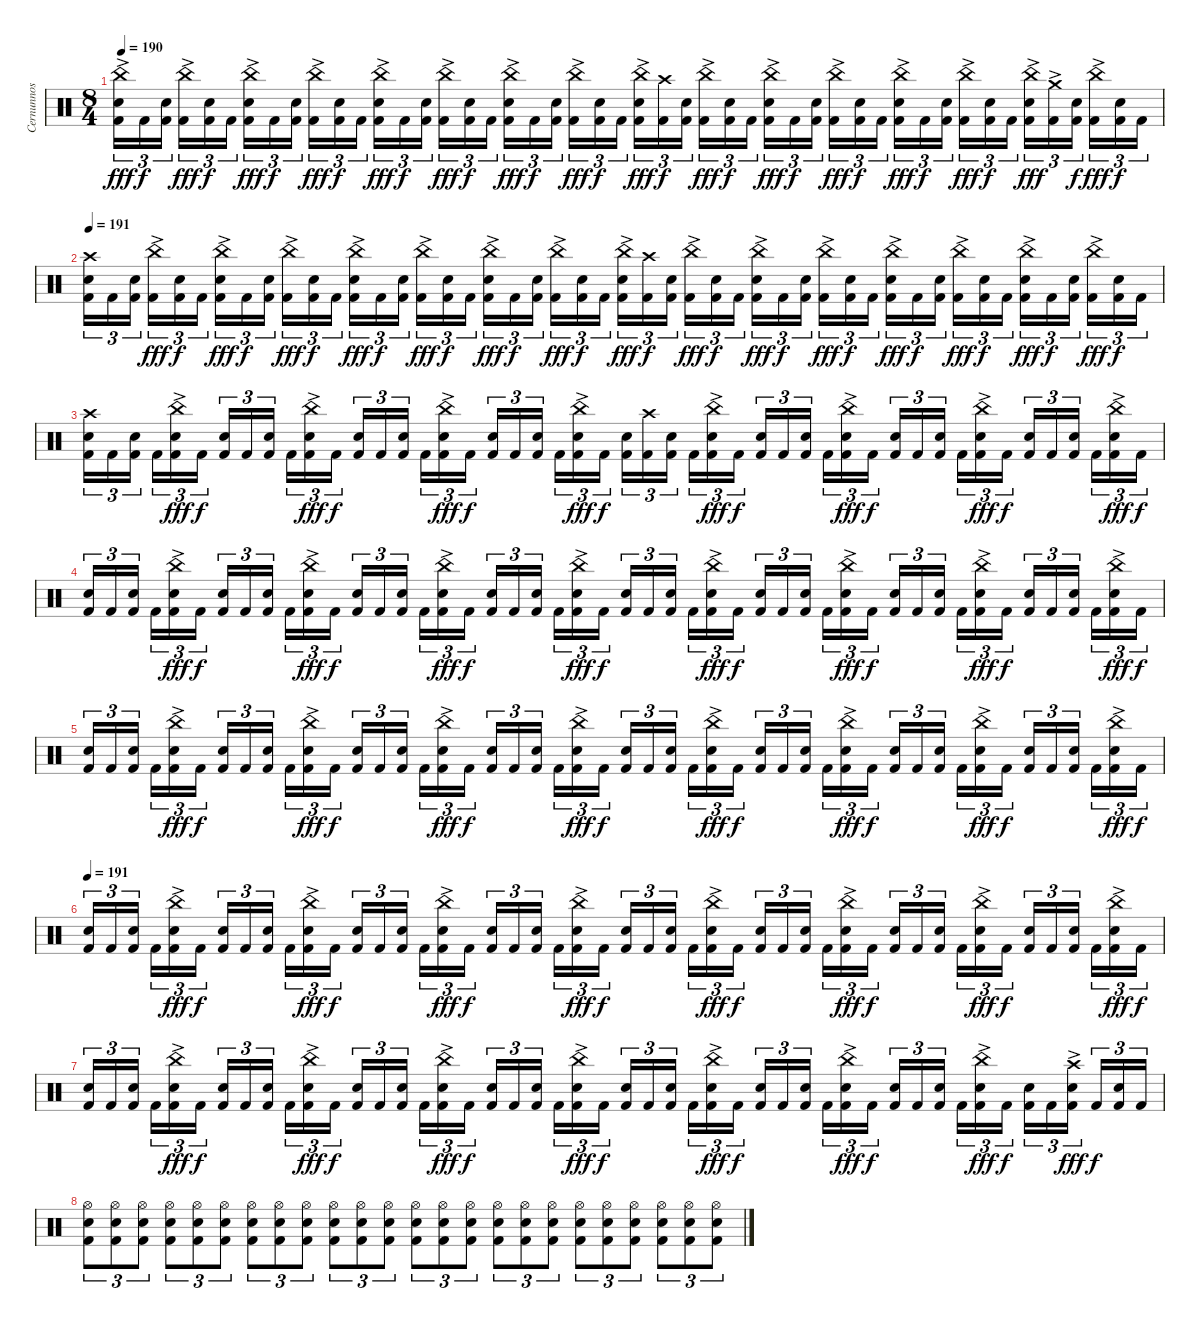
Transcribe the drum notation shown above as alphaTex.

\track ("Cernunnos (in memory)" "Cernunnos ") {instrument percussion}
\staff {score}
\articulation defaults
\ts (8 4)
\tempo 190
\clef neutral
\ks c
("China (hit)"{ac} "Electric Snare (hit)" "Kick (hit) 2").16{tu (3 2) dy fff} "Kick (hit) 2".16{tu (3 2) dy f} ("Electric Snare (hit)" "Kick (hit) 2").16{tu (3 2)} ("China (hit)"{ac} "Kick (hit) 2").16{tu (3 2) dy fff} ("Electric Snare (hit)" "Kick (hit) 2").16{tu (3 2) dy f} "Kick (hit) 2".16{tu (3 2)} ("China (hit)"{ac} "Electric Snare (hit)" "Kick (hit) 2").16{tu (3 2) dy fff} "Kick (hit) 2".16{tu (3 2) dy f} ("Electric Snare (hit)" "Kick (hit) 2").16{tu (3 2)} ("China (hit)"{ac} "Kick (hit) 2").16{tu (3 2) dy fff} ("Electric Snare (hit)" "Kick (hit) 2").16{tu (3 2) dy f} "Kick (hit) 2".16{tu (3 2)} ("China (hit)"{ac} "Electric Snare (hit)" "Kick (hit) 2").16{tu (3 2) dy fff} "Kick (hit) 2".16{tu (3 2) dy f} ("Electric Snare (hit)" "Kick (hit) 2").16{tu (3 2)} ("China (hit)"{ac} "Kick (hit) 2").16{tu (3 2) dy fff} ("Electric Snare (hit)" "Kick (hit) 2").16{tu (3 2) dy f} "Kick (hit) 2".16{tu (3 2)} ("China (hit)"{ac} "Electric Snare (hit)" "Kick (hit) 2").16{tu (3 2) dy fff} "Kick (hit) 2".16{tu (3 2) dy f} ("Electric Snare (hit)" "Kick (hit) 2").16{tu (3 2)} ("China (hit)"{ac} "Kick (hit) 2").16{tu (3 2) dy fff} ("Electric Snare (hit)" "Kick (hit) 2").16{tu (3 2) dy f} "Kick (hit) 2".16{tu (3 2)} ("China (hit)"{ac} "Electric Snare (hit)" "Kick (hit) 2").16{tu (3 2) dy fff} ("Crash high (hit)" "Kick (hit) 2").16{tu (3 2) dy f} ("Electric Snare (hit)" "Kick (hit) 2").16{tu (3 2)} ("China (hit)"{ac} "Kick (hit) 2").16{tu (3 2) dy fff} ("Electric Snare (hit)" "Kick (hit) 2").16{tu (3 2) dy f} "Kick (hit) 2".16{tu (3 2)} ("China (hit)"{ac} "Electric Snare (hit)" "Kick (hit) 2").16{tu (3 2) dy fff} "Kick (hit) 2".16{tu (3 2) dy f} ("Electric Snare (hit)" "Kick (hit) 2").16{tu (3 2)} ("China (hit)"{ac} "Kick (hit) 2").16{tu (3 2) dy fff} ("Electric Snare (hit)" "Kick (hit) 2").16{tu (3 2) dy f} "Kick (hit) 2".16{tu (3 2)} ("China (hit)"{ac} "Electric Snare (hit)" "Kick (hit) 2").16{tu (3 2) dy fff} "Kick (hit) 2".16{tu (3 2) dy f} ("Electric Snare (hit)" "Kick (hit) 2").16{tu (3 2)} ("China (hit)"{ac} "Kick (hit) 2").16{tu (3 2) dy fff} ("Electric Snare (hit)" "Kick (hit) 2").16{tu (3 2) dy f} "Kick (hit) 2".16{tu (3 2)} ("China (hit)"{ac} "Electric Snare (hit)" "Kick (hit) 2").16{tu (3 2) dy fff} ("Crash medium (hit)"{ac} "Kick (hit) 2").16{tu (3 2)} ("Electric Snare (hit)" "Kick (hit) 2").16{tu (3 2) dy f} ("China (hit)"{ac} "Kick (hit) 2").16{tu (3 2) dy fff} ("Electric Snare (hit)" "Kick (hit) 2").16{tu (3 2) dy f} "Kick (hit) 2".16{tu (3 2)} |
\tempo 191
("Crash high (hit)" "Electric Snare (hit)" "Kick (hit) 2").16{tu (3 2)} "Kick (hit) 2".16{tu (3 2)} ("Electric Snare (hit)" "Kick (hit) 2").16{tu (3 2)} ("China (hit)"{ac} "Kick (hit) 2").16{tu (3 2) dy fff} ("Electric Snare (hit)" "Kick (hit) 2").16{tu (3 2) dy f} "Kick (hit) 2".16{tu (3 2)} ("China (hit)"{ac} "Electric Snare (hit)" "Kick (hit) 2").16{tu (3 2) dy fff} "Kick (hit) 2".16{tu (3 2) dy f} ("Electric Snare (hit)" "Kick (hit) 2").16{tu (3 2)} ("China (hit)"{ac} "Kick (hit) 2").16{tu (3 2) dy fff} ("Electric Snare (hit)" "Kick (hit) 2").16{tu (3 2) dy f} "Kick (hit) 2".16{tu (3 2)} ("China (hit)"{ac} "Electric Snare (hit)" "Kick (hit) 2").16{tu (3 2) dy fff} "Kick (hit) 2".16{tu (3 2) dy f} ("Electric Snare (hit)" "Kick (hit) 2").16{tu (3 2)} ("China (hit)"{ac} "Kick (hit) 2").16{tu (3 2) dy fff} ("Electric Snare (hit)" "Kick (hit) 2").16{tu (3 2) dy f} "Kick (hit) 2".16{tu (3 2)} ("China (hit)"{ac} "Electric Snare (hit)" "Kick (hit) 2").16{tu (3 2) dy fff} "Kick (hit) 2".16{tu (3 2) dy f} ("Electric Snare (hit)" "Kick (hit) 2").16{tu (3 2)} ("China (hit)"{ac} "Kick (hit) 2").16{tu (3 2) dy fff} ("Electric Snare (hit)" "Kick (hit) 2").16{tu (3 2) dy f} "Kick (hit) 2".16{tu (3 2)} ("China (hit)"{ac} "Electric Snare (hit)" "Kick (hit) 2").16{tu (3 2) dy fff} ("Crash high (hit)" "Kick (hit) 2").16{tu (3 2) dy f} ("Electric Snare (hit)" "Kick (hit) 2").16{tu (3 2)} ("China (hit)"{ac} "Kick (hit) 2").16{tu (3 2) dy fff} ("Electric Snare (hit)" "Kick (hit) 2").16{tu (3 2) dy f} "Kick (hit) 2".16{tu (3 2)} ("China (hit)"{ac} "Electric Snare (hit)" "Kick (hit) 2").16{tu (3 2) dy fff} "Kick (hit) 2".16{tu (3 2) dy f} ("Electric Snare (hit)" "Kick (hit) 2").16{tu (3 2)} ("China (hit)"{ac} "Kick (hit) 2").16{tu (3 2) dy fff} ("Electric Snare (hit)" "Kick (hit) 2").16{tu (3 2) dy f} "Kick (hit) 2".16{tu (3 2)} ("China (hit)"{ac} "Electric Snare (hit)" "Kick (hit) 2").16{tu (3 2) dy fff} "Kick (hit) 2".16{tu (3 2) dy f} ("Electric Snare (hit)" "Kick (hit) 2").16{tu (3 2)} ("China (hit)"{ac} "Kick (hit) 2").16{tu (3 2) dy fff} ("Electric Snare (hit)" "Kick (hit) 2").16{tu (3 2) dy f} "Kick (hit) 2".16{tu (3 2)} ("China (hit)"{ac} "Electric Snare (hit)" "Kick (hit) 2").16{tu (3 2) dy fff} "Kick (hit) 2".16{tu (3 2) dy f} ("Electric Snare (hit)" "Kick (hit) 2").16{tu (3 2)} ("China (hit)"{ac} "Kick (hit) 2").16{tu (3 2) dy fff} ("Electric Snare (hit)" "Kick (hit) 2").16{tu (3 2) dy f} "Kick (hit) 2".16{tu (3 2)} |
("Crash high (hit)" "Electric Snare (hit)" "Kick (hit) 2").16{tu (3 2)} "Kick (hit) 2".16{tu (3 2)} ("Electric Snare (hit)" "Kick (hit) 2").16{tu (3 2)} "Kick (hit) 2".16{tu (3 2)} ("China (hit)"{ac} "Electric Snare (hit)" "Kick (hit) 2").16{tu (3 2) dy fff} "Kick (hit) 2".16{tu (3 2) dy f} ("Electric Snare (hit)" "Kick (hit) 2").16{tu (3 2)} "Kick (hit) 2".16{tu (3 2)} ("Electric Snare (hit)" "Kick (hit) 2").16{tu (3 2)} "Kick (hit) 2".16{tu (3 2)} ("China (hit)"{ac} "Electric Snare (hit)" "Kick (hit) 2").16{tu (3 2) dy fff} "Kick (hit) 2".16{tu (3 2) dy f} ("Electric Snare (hit)" "Kick (hit) 2").16{tu (3 2)} "Kick (hit) 2".16{tu (3 2)} ("Electric Snare (hit)" "Kick (hit) 2").16{tu (3 2)} "Kick (hit) 2".16{tu (3 2)} ("China (hit)"{ac} "Electric Snare (hit)" "Kick (hit) 2").16{tu (3 2) dy fff} "Kick (hit) 2".16{tu (3 2) dy f} ("Electric Snare (hit)" "Kick (hit) 2").16{tu (3 2)} "Kick (hit) 2".16{tu (3 2)} ("Electric Snare (hit)" "Kick (hit) 2").16{tu (3 2)} "Kick (hit) 2".16{tu (3 2)} ("China (hit)"{ac} "Electric Snare (hit)" "Kick (hit) 2").16{tu (3 2) dy fff} "Kick (hit) 2".16{tu (3 2) dy f} ("Electric Snare (hit)" "Kick (hit) 2").16{tu (3 2)} ("Crash high (hit)" "Kick (hit) 2").16{tu (3 2)} ("Electric Snare (hit)" "Kick (hit) 2").16{tu (3 2)} "Kick (hit) 2".16{tu (3 2)} ("China (hit)"{ac} "Electric Snare (hit)" "Kick (hit) 2").16{tu (3 2) dy fff} "Kick (hit) 2".16{tu (3 2) dy f} ("Electric Snare (hit)" "Kick (hit) 2").16{tu (3 2)} "Kick (hit) 2".16{tu (3 2)} ("Electric Snare (hit)" "Kick (hit) 2").16{tu (3 2)} "Kick (hit) 2".16{tu (3 2)} ("China (hit)"{ac} "Electric Snare (hit)" "Kick (hit) 2").16{tu (3 2) dy fff} "Kick (hit) 2".16{tu (3 2) dy f} ("Electric Snare (hit)" "Kick (hit) 2").16{tu (3 2)} "Kick (hit) 2".16{tu (3 2)} ("Electric Snare (hit)" "Kick (hit) 2").16{tu (3 2)} "Kick (hit) 2".16{tu (3 2)} ("China (hit)"{ac} "Electric Snare (hit)" "Kick (hit) 2").16{tu (3 2) dy fff} "Kick (hit) 2".16{tu (3 2) dy f} ("Electric Snare (hit)" "Kick (hit) 2").16{tu (3 2)} "Kick (hit) 2".16{tu (3 2)} ("Electric Snare (hit)" "Kick (hit) 2").16{tu (3 2)} "Kick (hit) 2".16{tu (3 2)} ("China (hit)"{ac} "Electric Snare (hit)" "Kick (hit) 2").16{tu (3 2) dy fff} "Kick (hit) 2".16{tu (3 2) dy f} |
("Electric Snare (hit)" "Kick (hit) 2").16{tu (3 2)} "Kick (hit) 2".16{tu (3 2)} ("Electric Snare (hit)" "Kick (hit) 2").16{tu (3 2)} "Kick (hit) 2".16{tu (3 2)} ("China (hit)"{ac} "Electric Snare (hit)" "Kick (hit) 2").16{tu (3 2) dy fff} "Kick (hit) 2".16{tu (3 2) dy f} ("Electric Snare (hit)" "Kick (hit) 2").16{tu (3 2)} "Kick (hit) 2".16{tu (3 2)} ("Electric Snare (hit)" "Kick (hit) 2").16{tu (3 2)} "Kick (hit) 2".16{tu (3 2)} ("China (hit)"{ac} "Electric Snare (hit)" "Kick (hit) 2").16{tu (3 2) dy fff} "Kick (hit) 2".16{tu (3 2) dy f} ("Electric Snare (hit)" "Kick (hit) 2").16{tu (3 2)} "Kick (hit) 2".16{tu (3 2)} ("Electric Snare (hit)" "Kick (hit) 2").16{tu (3 2)} "Kick (hit) 2".16{tu (3 2)} ("China (hit)"{ac} "Electric Snare (hit)" "Kick (hit) 2").16{tu (3 2) dy fff} "Kick (hit) 2".16{tu (3 2) dy f} ("Electric Snare (hit)" "Kick (hit) 2").16{tu (3 2)} "Kick (hit) 2".16{tu (3 2)} ("Electric Snare (hit)" "Kick (hit) 2").16{tu (3 2)} "Kick (hit) 2".16{tu (3 2)} ("China (hit)"{ac} "Electric Snare (hit)" "Kick (hit) 2").16{tu (3 2) dy fff} "Kick (hit) 2".16{tu (3 2) dy f} ("Electric Snare (hit)" "Kick (hit) 2").16{tu (3 2)} "Kick (hit) 2".16{tu (3 2)} ("Electric Snare (hit)" "Kick (hit) 2").16{tu (3 2)} "Kick (hit) 2".16{tu (3 2)} ("China (hit)"{ac} "Electric Snare (hit)" "Kick (hit) 2").16{tu (3 2) dy fff} "Kick (hit) 2".16{tu (3 2) dy f} ("Electric Snare (hit)" "Kick (hit) 2").16{tu (3 2)} "Kick (hit) 2".16{tu (3 2)} ("Electric Snare (hit)" "Kick (hit) 2").16{tu (3 2)} "Kick (hit) 2".16{tu (3 2)} ("China (hit)"{ac} "Electric Snare (hit)" "Kick (hit) 2").16{tu (3 2) dy fff} "Kick (hit) 2".16{tu (3 2) dy f} ("Electric Snare (hit)" "Kick (hit) 2").16{tu (3 2)} "Kick (hit) 2".16{tu (3 2)} ("Electric Snare (hit)" "Kick (hit) 2").16{tu (3 2)} "Kick (hit) 2".16{tu (3 2)} ("China (hit)"{ac} "Electric Snare (hit)" "Kick (hit) 2").16{tu (3 2) dy fff} "Kick (hit) 2".16{tu (3 2) dy f} ("Electric Snare (hit)" "Kick (hit) 2").16{tu (3 2)} "Kick (hit) 2".16{tu (3 2)} ("Electric Snare (hit)" "Kick (hit) 2").16{tu (3 2)} "Kick (hit) 2".16{tu (3 2)} ("China (hit)"{ac} "Electric Snare (hit)" "Kick (hit) 2").16{tu (3 2) dy fff} "Kick (hit) 2".16{tu (3 2) dy f} |
("Electric Snare (hit)" "Kick (hit) 2").16{tu (3 2)} "Kick (hit) 2".16{tu (3 2)} ("Electric Snare (hit)" "Kick (hit) 2").16{tu (3 2)} "Kick (hit) 2".16{tu (3 2)} ("China (hit)"{ac} "Electric Snare (hit)" "Kick (hit) 2").16{tu (3 2) dy fff} "Kick (hit) 2".16{tu (3 2) dy f} ("Electric Snare (hit)" "Kick (hit) 2").16{tu (3 2)} "Kick (hit) 2".16{tu (3 2)} ("Electric Snare (hit)" "Kick (hit) 2").16{tu (3 2)} "Kick (hit) 2".16{tu (3 2)} ("China (hit)"{ac} "Electric Snare (hit)" "Kick (hit) 2").16{tu (3 2) dy fff} "Kick (hit) 2".16{tu (3 2) dy f} ("Electric Snare (hit)" "Kick (hit) 2").16{tu (3 2)} "Kick (hit) 2".16{tu (3 2)} ("Electric Snare (hit)" "Kick (hit) 2").16{tu (3 2)} "Kick (hit) 2".16{tu (3 2)} ("China (hit)"{ac} "Electric Snare (hit)" "Kick (hit) 2").16{tu (3 2) dy fff} "Kick (hit) 2".16{tu (3 2) dy f} ("Electric Snare (hit)" "Kick (hit) 2").16{tu (3 2)} "Kick (hit) 2".16{tu (3 2)} ("Electric Snare (hit)" "Kick (hit) 2").16{tu (3 2)} "Kick (hit) 2".16{tu (3 2)} ("China (hit)"{ac} "Electric Snare (hit)" "Kick (hit) 2").16{tu (3 2) dy fff} "Kick (hit) 2".16{tu (3 2) dy f} ("Electric Snare (hit)" "Kick (hit) 2").16{tu (3 2)} "Kick (hit) 2".16{tu (3 2)} ("Electric Snare (hit)" "Kick (hit) 2").16{tu (3 2)} "Kick (hit) 2".16{tu (3 2)} ("China (hit)"{ac} "Electric Snare (hit)" "Kick (hit) 2").16{tu (3 2) dy fff} "Kick (hit) 2".16{tu (3 2) dy f} ("Electric Snare (hit)" "Kick (hit) 2").16{tu (3 2)} "Kick (hit) 2".16{tu (3 2)} ("Electric Snare (hit)" "Kick (hit) 2").16{tu (3 2)} "Kick (hit) 2".16{tu (3 2)} ("China (hit)"{ac} "Electric Snare (hit)" "Kick (hit) 2").16{tu (3 2) dy fff} "Kick (hit) 2".16{tu (3 2) dy f} ("Electric Snare (hit)" "Kick (hit) 2").16{tu (3 2)} "Kick (hit) 2".16{tu (3 2)} ("Electric Snare (hit)" "Kick (hit) 2").16{tu (3 2)} "Kick (hit) 2".16{tu (3 2)} ("China (hit)"{ac} "Electric Snare (hit)" "Kick (hit) 2").16{tu (3 2) dy fff} "Kick (hit) 2".16{tu (3 2) dy f} ("Electric Snare (hit)" "Kick (hit) 2").16{tu (3 2)} "Kick (hit) 2".16{tu (3 2)} ("Electric Snare (hit)" "Kick (hit) 2").16{tu (3 2)} "Kick (hit) 2".16{tu (3 2)} ("China (hit)"{ac} "Electric Snare (hit)" "Kick (hit) 2").16{tu (3 2) dy fff} "Kick (hit) 2".16{tu (3 2) dy f} |
\tempo 191
("Electric Snare (hit)" "Kick (hit) 2").16{tu (3 2)} "Kick (hit) 2".16{tu (3 2)} ("Electric Snare (hit)" "Kick (hit) 2").16{tu (3 2)} "Kick (hit) 2".16{tu (3 2)} ("China (hit)"{ac} "Electric Snare (hit)" "Kick (hit) 2").16{tu (3 2) dy fff} "Kick (hit) 2".16{tu (3 2) dy f} ("Electric Snare (hit)" "Kick (hit) 2").16{tu (3 2)} "Kick (hit) 2".16{tu (3 2)} ("Electric Snare (hit)" "Kick (hit) 2").16{tu (3 2)} "Kick (hit) 2".16{tu (3 2)} ("China (hit)"{ac} "Electric Snare (hit)" "Kick (hit) 2").16{tu (3 2) dy fff} "Kick (hit) 2".16{tu (3 2) dy f} ("Electric Snare (hit)" "Kick (hit) 2").16{tu (3 2)} "Kick (hit) 2".16{tu (3 2)} ("Electric Snare (hit)" "Kick (hit) 2").16{tu (3 2)} "Kick (hit) 2".16{tu (3 2)} ("China (hit)"{ac} "Electric Snare (hit)" "Kick (hit) 2").16{tu (3 2) dy fff} "Kick (hit) 2".16{tu (3 2) dy f} ("Electric Snare (hit)" "Kick (hit) 2").16{tu (3 2)} "Kick (hit) 2".16{tu (3 2)} ("Electric Snare (hit)" "Kick (hit) 2").16{tu (3 2)} "Kick (hit) 2".16{tu (3 2)} ("China (hit)"{ac} "Electric Snare (hit)" "Kick (hit) 2").16{tu (3 2) dy fff} "Kick (hit) 2".16{tu (3 2) dy f} ("Electric Snare (hit)" "Kick (hit) 2").16{tu (3 2)} "Kick (hit) 2".16{tu (3 2)} ("Electric Snare (hit)" "Kick (hit) 2").16{tu (3 2)} "Kick (hit) 2".16{tu (3 2)} ("China (hit)"{ac} "Electric Snare (hit)" "Kick (hit) 2").16{tu (3 2) dy fff} "Kick (hit) 2".16{tu (3 2) dy f} ("Electric Snare (hit)" "Kick (hit) 2").16{tu (3 2)} "Kick (hit) 2".16{tu (3 2)} ("Electric Snare (hit)" "Kick (hit) 2").16{tu (3 2)} "Kick (hit) 2".16{tu (3 2)} ("China (hit)"{ac} "Electric Snare (hit)" "Kick (hit) 2").16{tu (3 2) dy fff} "Kick (hit) 2".16{tu (3 2) dy f} ("Electric Snare (hit)" "Kick (hit) 2").16{tu (3 2)} "Kick (hit) 2".16{tu (3 2)} ("Electric Snare (hit)" "Kick (hit) 2").16{tu (3 2)} "Kick (hit) 2".16{tu (3 2)} ("China (hit)"{ac} "Electric Snare (hit)" "Kick (hit) 2").16{tu (3 2) dy fff} "Kick (hit) 2".16{tu (3 2) dy f} ("Electric Snare (hit)" "Kick (hit) 2").16{tu (3 2)} "Kick (hit) 2".16{tu (3 2)} ("Electric Snare (hit)" "Kick (hit) 2").16{tu (3 2)} "Kick (hit) 2".16{tu (3 2)} ("China (hit)"{ac} "Electric Snare (hit)" "Kick (hit) 2").16{tu (3 2) dy fff} "Kick (hit) 2".16{tu (3 2) dy f} |
("Electric Snare (hit)" "Kick (hit) 2").16{tu (3 2)} "Kick (hit) 2".16{tu (3 2)} ("Electric Snare (hit)" "Kick (hit) 2").16{tu (3 2)} "Kick (hit) 2".16{tu (3 2)} ("China (hit)"{ac} "Electric Snare (hit)" "Kick (hit) 2").16{tu (3 2) dy fff} "Kick (hit) 2".16{tu (3 2) dy f} ("Electric Snare (hit)" "Kick (hit) 2").16{tu (3 2)} "Kick (hit) 2".16{tu (3 2)} ("Electric Snare (hit)" "Kick (hit) 2").16{tu (3 2)} "Kick (hit) 2".16{tu (3 2)} ("China (hit)"{ac} "Electric Snare (hit)" "Kick (hit) 2").16{tu (3 2) dy fff} "Kick (hit) 2".16{tu (3 2) dy f} ("Electric Snare (hit)" "Kick (hit) 2").16{tu (3 2)} "Kick (hit) 2".16{tu (3 2)} ("Electric Snare (hit)" "Kick (hit) 2").16{tu (3 2)} "Kick (hit) 2".16{tu (3 2)} ("China (hit)"{ac} "Electric Snare (hit)" "Kick (hit) 2").16{tu (3 2) dy fff} "Kick (hit) 2".16{tu (3 2) dy f} ("Electric Snare (hit)" "Kick (hit) 2").16{tu (3 2)} "Kick (hit) 2".16{tu (3 2)} ("Electric Snare (hit)" "Kick (hit) 2").16{tu (3 2)} "Kick (hit) 2".16{tu (3 2)} ("China (hit)"{ac} "Electric Snare (hit)" "Kick (hit) 2").16{tu (3 2) dy fff} "Kick (hit) 2".16{tu (3 2) dy f} ("Electric Snare (hit)" "Kick (hit) 2").16{tu (3 2)} "Kick (hit) 2".16{tu (3 2)} ("Electric Snare (hit)" "Kick (hit) 2").16{tu (3 2)} "Kick (hit) 2".16{tu (3 2)} ("China (hit)"{ac} "Electric Snare (hit)" "Kick (hit) 2").16{tu (3 2) dy fff} "Kick (hit) 2".16{tu (3 2) dy f} ("Electric Snare (hit)" "Kick (hit) 2").16{tu (3 2)} "Kick (hit) 2".16{tu (3 2)} ("Electric Snare (hit)" "Kick (hit) 2").16{tu (3 2)} "Kick (hit) 2".16{tu (3 2)} ("China (hit)"{ac} "Electric Snare (hit)" "Kick (hit) 2").16{tu (3 2) dy fff} "Kick (hit) 2".16{tu (3 2) dy f} ("Electric Snare (hit)" "Kick (hit) 2").16{tu (3 2)} "Kick (hit) 2".16{tu (3 2)} ("Electric Snare (hit)" "Kick (hit) 2").16{tu (3 2)} "Kick (hit) 2".16{tu (3 2)} ("China (hit)"{ac} "Electric Snare (hit)" "Kick (hit) 2").16{tu (3 2) dy fff} "Kick (hit) 2".16{tu (3 2) dy f} ("Electric Snare (hit)" "Kick (hit) 2").16{tu (3 2)} "Kick (hit) 2".16{tu (3 2)} ("Crash high (hit)"{ac} "Electric Snare (hit)" "Kick (hit) 2").16{tu (3 2) dy fff} "Kick (hit) 2".16{tu (3 2) dy f} ("Electric Snare (hit)" "Kick (hit) 2").16{tu (3 2)} "Kick (hit) 2".16{tu (3 2)} |
("Hi-Hat (open)" "Electric Snare (hit)" "Kick (hit) 2").8{tu (3 2)} ("Hi-Hat (open)" "Electric Snare (hit)" "Kick (hit) 2").8{tu (3 2)} ("Hi-Hat (open)" "Electric Snare (hit)" "Kick (hit) 2").8{tu (3 2)} ("Hi-Hat (open)" "Electric Snare (hit)" "Kick (hit) 2").8{tu (3 2)} ("Hi-Hat (open)" "Electric Snare (hit)" "Kick (hit) 2").8{tu (3 2)} ("Hi-Hat (open)" "Electric Snare (hit)" "Kick (hit) 2").8{tu (3 2)} ("Hi-Hat (open)" "Electric Snare (hit)" "Kick (hit) 2").8{tu (3 2)} ("Hi-Hat (open)" "Electric Snare (hit)" "Kick (hit) 2").8{tu (3 2)} ("Hi-Hat (open)" "Electric Snare (hit)" "Kick (hit) 2").8{tu (3 2)} ("Hi-Hat (open)" "Electric Snare (hit)" "Kick (hit) 2").8{tu (3 2)} ("Hi-Hat (open)" "Electric Snare (hit)" "Kick (hit) 2").8{tu (3 2)} ("Hi-Hat (open)" "Electric Snare (hit)" "Kick (hit) 2").8{tu (3 2)} ("Hi-Hat (open)" "Electric Snare (hit)" "Kick (hit) 2").8{tu (3 2)} ("Hi-Hat (open)" "Electric Snare (hit)" "Kick (hit) 2").8{tu (3 2)} ("Hi-Hat (open)" "Electric Snare (hit)" "Kick (hit) 2").8{tu (3 2)} ("Hi-Hat (open)" "Electric Snare (hit)" "Kick (hit) 2").8{tu (3 2)} ("Hi-Hat (open)" "Electric Snare (hit)" "Kick (hit) 2").8{tu (3 2)} ("Hi-Hat (open)" "Electric Snare (hit)" "Kick (hit) 2").8{tu (3 2)} ("Hi-Hat (open)" "Electric Snare (hit)" "Kick (hit) 2").8{tu (3 2)} ("Hi-Hat (open)" "Electric Snare (hit)" "Kick (hit) 2").8{tu (3 2)} ("Hi-Hat (open)" "Electric Snare (hit)" "Kick (hit) 2").8{tu (3 2)} ("Hi-Hat (open)" "Electric Snare (hit)" "Kick (hit) 2").8{tu (3 2)} ("Hi-Hat (open)" "Electric Snare (hit)" "Kick (hit) 2").8{tu (3 2)} ("Hi-Hat (open)" "Electric Snare (hit)" "Kick (hit) 2").8{tu (3 2)}
